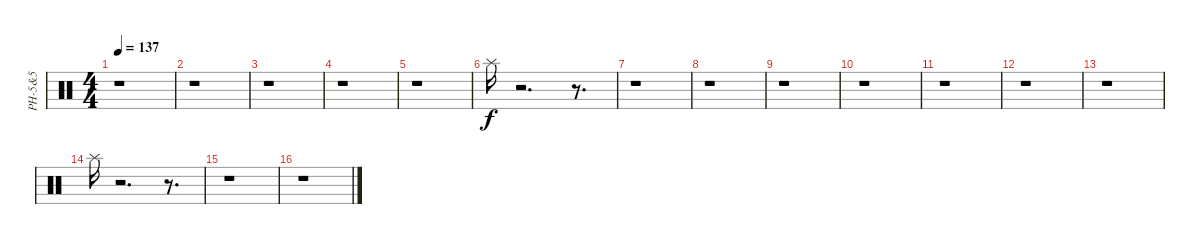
\track ("PH-5&5" "PH-5&5") {instrument percussion}
\staff {score}
\articulation defaults
\ts (4 4)
\tempo 137
\clef neutral
\ks c
r.1{dy f} |
r.1 |
r.1 |
r.1 |
r.1 |
"Splash (hit)".16 r.2{d} r.8{d} |
r.1 |
r.1 |
r.1 |
r.1 |
r.1 |
r.1 |
r.1 |
"Splash (hit)".16 r.2{d} r.8{d} |
r.1 |
r.1
